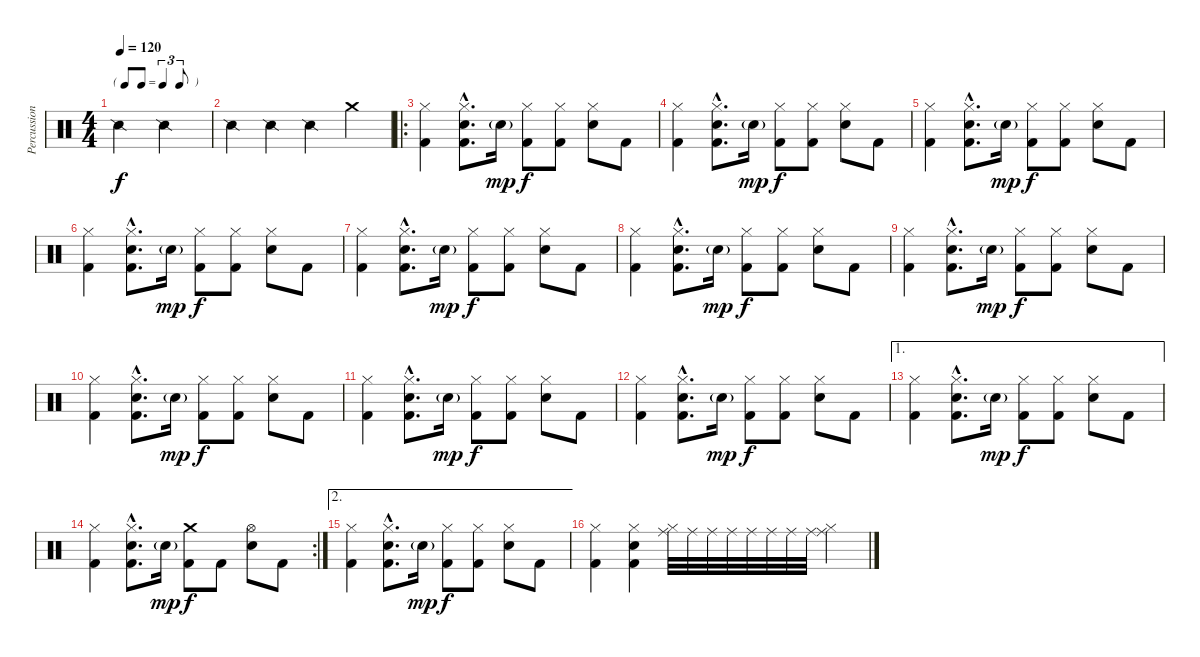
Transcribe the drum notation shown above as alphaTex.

\track ("Percussions" "Percussion") {instrument percussion}
\staff {score}
\articulation defaults
\ts (4 4)
\tf triplet8th
\tempo 120
\clef neutral
\ks c "Snare (side stick) 2".2{dy f} "Snare (side stick) 2".2
|
"Snare (side stick) 2".4 "Snare (side stick) 2".4 "Snare (side stick) 2".4 "Crash medium (hit)".4 |
\ro
("Hi-Hat (closed)" "Kick (hit) 2").4 ("Hi-Hat (closed)"{hac} "Snare (hit) 2"{hac} "Kick (hit) 2"{hac}).8{d} "Snare (hit) 2"{g}.16{dy mp} ("Hi-Hat (closed)" "Kick (hit) 2").8{dy f} ("Hi-Hat (closed)" "Kick (hit) 2").8 ("Hi-Hat (closed)" "Snare (hit) 2").8 "Kick (hit) 2".8 |
("Hi-Hat (closed)" "Kick (hit) 2").4 ("Hi-Hat (closed)"{hac} "Snare (hit) 2"{hac} "Kick (hit) 2"{hac}).8{d} "Snare (hit) 2"{g}.16{dy mp} ("Hi-Hat (closed)" "Kick (hit) 2").8{dy f} ("Hi-Hat (closed)" "Kick (hit) 2").8 ("Hi-Hat (closed)" "Snare (hit) 2").8 "Kick (hit) 2".8 |
("Hi-Hat (closed)" "Kick (hit) 2").4 ("Hi-Hat (closed)"{hac} "Snare (hit) 2"{hac} "Kick (hit) 2"{hac}).8{d} "Snare (hit) 2"{g}.16{dy mp} ("Hi-Hat (closed)" "Kick (hit) 2").8{dy f} ("Hi-Hat (closed)" "Kick (hit) 2").8 ("Hi-Hat (closed)" "Snare (hit) 2").8 "Kick (hit) 2".8 |
("Hi-Hat (closed)" "Kick (hit) 2").4 ("Hi-Hat (closed)"{hac} "Snare (hit) 2"{hac} "Kick (hit) 2"{hac}).8{d} "Snare (hit) 2"{g}.16{dy mp} ("Hi-Hat (closed)" "Kick (hit) 2").8{dy f} ("Hi-Hat (closed)" "Kick (hit) 2").8 ("Hi-Hat (closed)" "Snare (hit) 2").8 "Kick (hit) 2".8 |
("Hi-Hat (closed)" "Kick (hit) 2").4 ("Hi-Hat (closed)"{hac} "Snare (hit) 2"{hac} "Kick (hit) 2"{hac}).8{d} "Snare (hit) 2"{g}.16{dy mp} ("Hi-Hat (closed)" "Kick (hit) 2").8{dy f} ("Hi-Hat (closed)" "Kick (hit) 2").8 ("Hi-Hat (closed)" "Snare (hit) 2").8 "Kick (hit) 2".8 |
("Hi-Hat (closed)" "Kick (hit) 2").4 ("Hi-Hat (closed)"{hac} "Snare (hit) 2"{hac} "Kick (hit) 2"{hac}).8{d} "Snare (hit) 2"{g}.16{dy mp} ("Hi-Hat (closed)" "Kick (hit) 2").8{dy f} ("Hi-Hat (closed)" "Kick (hit) 2").8 ("Hi-Hat (closed)" "Snare (hit) 2").8 "Kick (hit) 2".8 |
("Hi-Hat (closed)" "Kick (hit) 2").4 ("Hi-Hat (closed)"{hac} "Snare (hit) 2"{hac} "Kick (hit) 2"{hac}).8{d} "Snare (hit) 2"{g}.16{dy mp} ("Hi-Hat (closed)" "Kick (hit) 2").8{dy f} ("Hi-Hat (closed)" "Kick (hit) 2").8 ("Hi-Hat (closed)" "Snare (hit) 2").8 "Kick (hit) 2".8 |
("Hi-Hat (closed)" "Kick (hit) 2").4 ("Hi-Hat (closed)"{hac} "Snare (hit) 2"{hac} "Kick (hit) 2"{hac}).8{d} "Snare (hit) 2"{g}.16{dy mp} ("Hi-Hat (closed)" "Kick (hit) 2").8{dy f} ("Hi-Hat (closed)" "Kick (hit) 2").8 ("Hi-Hat (closed)" "Snare (hit) 2").8 "Kick (hit) 2".8 |
("Hi-Hat (closed)" "Kick (hit) 2").4 ("Hi-Hat (closed)"{hac} "Snare (hit) 2"{hac} "Kick (hit) 2"{hac}).8{d} "Snare (hit) 2"{g}.16{dy mp} ("Hi-Hat (closed)" "Kick (hit) 2").8{dy f} ("Hi-Hat (closed)" "Kick (hit) 2").8 ("Hi-Hat (closed)" "Snare (hit) 2").8 "Kick (hit) 2".8 |
("Hi-Hat (closed)" "Kick (hit) 2").4 ("Hi-Hat (closed)"{hac} "Snare (hit) 2"{hac} "Kick (hit) 2"{hac}).8{d} "Snare (hit) 2"{g}.16{dy mp} ("Hi-Hat (closed)" "Kick (hit) 2").8{dy f} ("Hi-Hat (closed)" "Kick (hit) 2").8 ("Hi-Hat (closed)" "Snare (hit) 2").8 "Kick (hit) 2".8 |
\ae 1
("Hi-Hat (closed)" "Kick (hit) 2").4 ("Hi-Hat (closed)"{hac} "Snare (hit) 2"{hac} "Kick (hit) 2"{hac}).8{d} "Snare (hit) 2"{g}.16{dy mp} ("Hi-Hat (closed)" "Kick (hit) 2").8{dy f} ("Hi-Hat (closed)" "Kick (hit) 2").8 ("Hi-Hat (closed)" "Snare (hit) 2").8 "Kick (hit) 2".8 |
\rc 2
("Hi-Hat (closed)" "Kick (hit) 2").4 ("Hi-Hat (closed)"{hac} "Snare (hit) 2"{hac} "Kick (hit) 2"{hac}).8{d} "Snare (hit) 2"{g}.16{dy mp} ("Crash medium (hit)" "Kick (hit) 2").8{dy f} "Kick (hit) 2".8 ("Hi-Hat (open)" "Snare (hit) 2").8 "Kick (hit) 2".8 |
\ae 2
("Hi-Hat (closed)" "Kick (hit) 2").4 ("Hi-Hat (closed)"{hac} "Snare (hit) 2"{hac} "Kick (hit) 2"{hac}).8{d} "Snare (hit) 2"{g}.16{dy mp} ("Hi-Hat (closed)" "Kick (hit) 2").8{dy f} ("Hi-Hat (closed)" "Kick (hit) 2").8 ("Hi-Hat (closed)" "Snare (hit) 2").8 "Kick (hit) 2".8 |
("Hi-Hat (closed)" "Kick (hit) 2").4 ("Hi-Hat (closed)" "Snare (hit) 2" "Kick (hit) 2").4 ("Hi-Hat (closed)" "Ride (middle)").32 "Ride (middle)".32 "Ride (middle)".32 "Ride (middle)".32 "Ride (middle)".32 "Ride (middle)".32 "Ride (middle)".32 "Ride (middle)".32 ("Hi-Hat (closed)" "Ride (middle)").4
